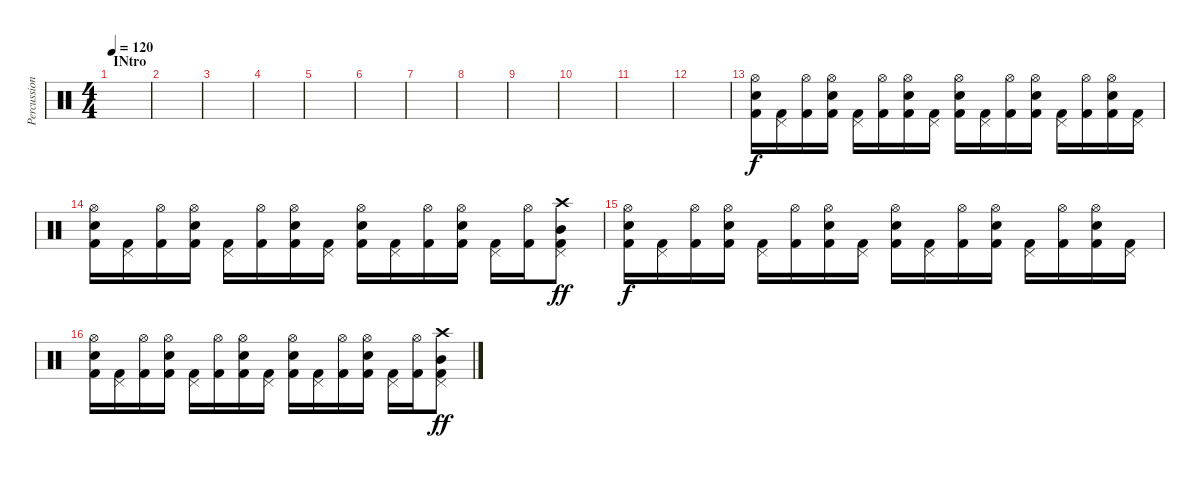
\track ("Percussion" "Percussion") {instrument percussion}
\staff {score}
\articulation defaults
\ts (4 4)
\section ("" "INtro")
\tempo 120
\clef neutral
\ks c
|
|
|
|
|
|
|
|
|
|
|
|
("Hi-Hat (open)" "Electric Snare (hit)" "Kick (hit) 2").16 ("Pedal Hi-Hat (hit)" "Kick (hit) 2").16 ("Hi-Hat (open)" "Kick (hit) 2").16 ("Hi-Hat (open)" "Electric Snare (hit)" "Kick (hit) 2").16 ("Pedal Hi-Hat (hit)" "Kick (hit) 2").16 ("Hi-Hat (open)" "Kick (hit) 2").16 ("Hi-Hat (open)" "Electric Snare (hit)" "Kick (hit) 2").16 ("Pedal Hi-Hat (hit)" "Kick (hit) 2").16 ("Hi-Hat (open)" "Electric Snare (hit)" "Kick (hit) 2").16 ("Pedal Hi-Hat (hit)" "Kick (hit) 2").16 ("Hi-Hat (open)" "Kick (hit) 2").16 ("Hi-Hat (open)" "Electric Snare (hit)" "Kick (hit) 2").16 ("Pedal Hi-Hat (hit)" "Kick (hit) 2").16 ("Hi-Hat (open)" "Kick (hit) 2").16 ("Hi-Hat (open)" "Electric Snare (hit)" "Kick (hit) 2").16 ("Pedal Hi-Hat (hit)" "Kick (hit) 2").16 |
("Hi-Hat (open)" "Electric Snare (hit)" "Kick (hit) 2").16 ("Pedal Hi-Hat (hit)" "Kick (hit) 2").16 ("Hi-Hat (open)" "Kick (hit) 2").16 ("Hi-Hat (open)" "Electric Snare (hit)" "Kick (hit) 2").16 ("Pedal Hi-Hat (hit)" "Kick (hit) 2").16 ("Hi-Hat (open)" "Kick (hit) 2").16 ("Hi-Hat (open)" "Electric Snare (hit)" "Kick (hit) 2").16 ("Pedal Hi-Hat (hit)" "Kick (hit) 2").16 ("Hi-Hat (open)" "Electric Snare (hit)" "Kick (hit) 2").16 ("Pedal Hi-Hat (hit)" "Kick (hit) 2").16 ("Hi-Hat (open)" "Kick (hit) 2").16 ("Hi-Hat (open)" "Electric Snare (hit)" "Kick (hit) 2").16 ("Pedal Hi-Hat (hit)" "Kick (hit) 2").16 ("Hi-Hat (open)" "Kick (hit) 2").16 ("Crash high (hit)" "Mid Tom (hit)" "Pedal Hi-Hat (hit)" "Kick (hit) 2").8{dy ff} |
("Hi-Hat (open)" "Electric Snare (hit)" "Kick (hit) 2").16{dy f} ("Pedal Hi-Hat (hit)" "Kick (hit) 2").16 ("Hi-Hat (open)" "Kick (hit) 2").16 ("Hi-Hat (open)" "Electric Snare (hit)" "Kick (hit) 2").16 ("Pedal Hi-Hat (hit)" "Kick (hit) 2").16 ("Hi-Hat (open)" "Kick (hit) 2").16 ("Hi-Hat (open)" "Electric Snare (hit)" "Kick (hit) 2").16 ("Pedal Hi-Hat (hit)" "Kick (hit) 2").16 ("Hi-Hat (open)" "Electric Snare (hit)" "Kick (hit) 2").16 ("Pedal Hi-Hat (hit)" "Kick (hit) 2").16 ("Hi-Hat (open)" "Kick (hit) 2").16 ("Hi-Hat (open)" "Electric Snare (hit)" "Kick (hit) 2").16 ("Pedal Hi-Hat (hit)" "Kick (hit) 2").16 ("Hi-Hat (open)" "Kick (hit) 2").16 ("Hi-Hat (open)" "Electric Snare (hit)" "Kick (hit) 2").16 ("Pedal Hi-Hat (hit)" "Kick (hit) 2").16 |
("Hi-Hat (open)" "Electric Snare (hit)" "Kick (hit) 2").16 ("Pedal Hi-Hat (hit)" "Kick (hit) 2").16 ("Hi-Hat (open)" "Kick (hit) 2").16 ("Hi-Hat (open)" "Electric Snare (hit)" "Kick (hit) 2").16 ("Pedal Hi-Hat (hit)" "Kick (hit) 2").16 ("Hi-Hat (open)" "Kick (hit) 2").16 ("Hi-Hat (open)" "Electric Snare (hit)" "Kick (hit) 2").16 ("Pedal Hi-Hat (hit)" "Kick (hit) 2").16 ("Hi-Hat (open)" "Electric Snare (hit)" "Kick (hit) 2").16 ("Pedal Hi-Hat (hit)" "Kick (hit) 2").16 ("Hi-Hat (open)" "Kick (hit) 2").16 ("Hi-Hat (open)" "Electric Snare (hit)" "Kick (hit) 2").16 ("Pedal Hi-Hat (hit)" "Kick (hit) 2").16 ("Hi-Hat (open)" "Kick (hit) 2").16 ("Crash high (hit)" "Mid Tom (hit)" "Pedal Hi-Hat (hit)" "Kick (hit) 2").8{dy ff}
